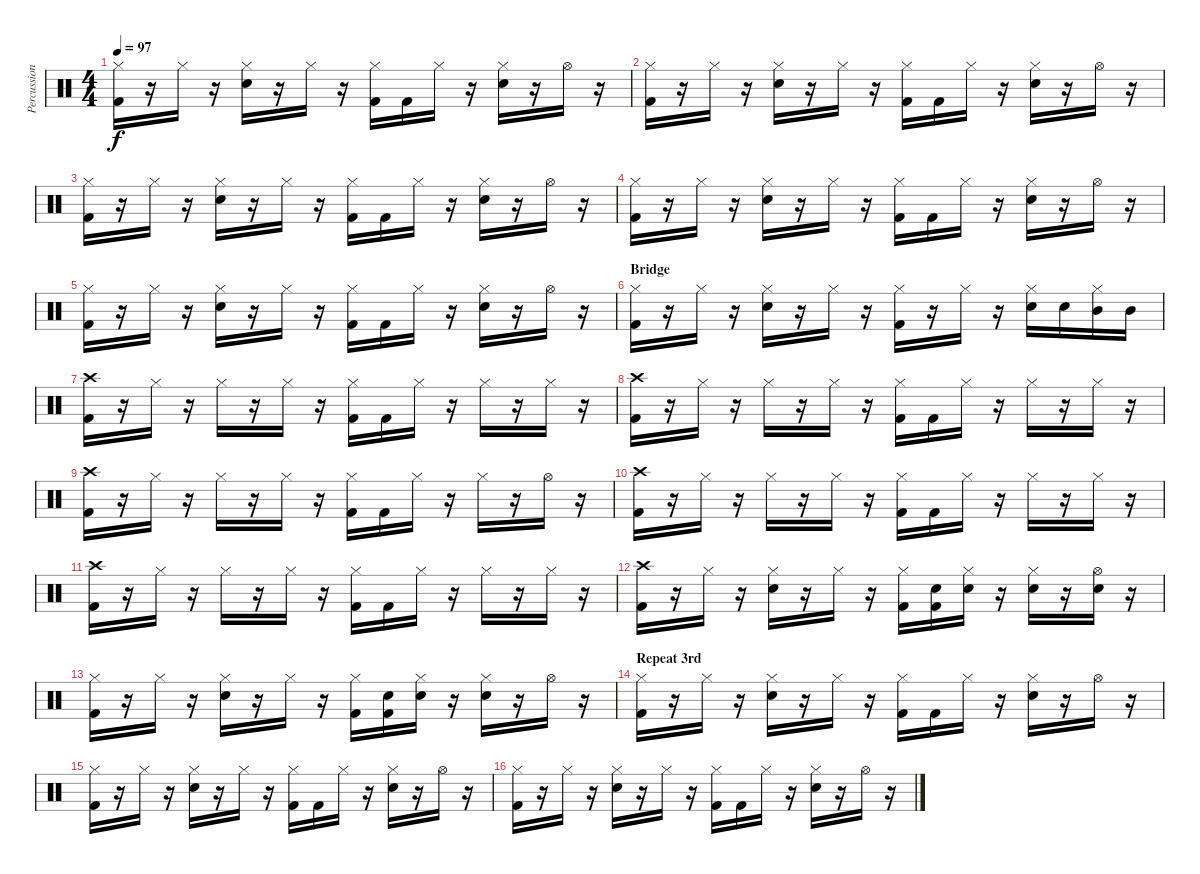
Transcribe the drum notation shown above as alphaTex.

\track ("Percussion" "Percussion") {instrument percussion}
\staff {score}
\articulation defaults
\ts (4 4)
\tempo 97
\clef neutral
\ks c
("Hi-Hat (closed)" "Kick (hit) 2").16{dy f} r.16 "Hi-Hat (closed)".16 r.16 ("Hi-Hat (closed)" "Snare (hit) 2").16 r.16 "Hi-Hat (closed)".16 r.16 ("Hi-Hat (closed)" "Kick (hit) 2").16 "Kick (hit) 2".16 "Hi-Hat (closed)".16 r.16 ("Hi-Hat (closed)" "Snare (hit) 2").16 r.16 "Hi-Hat (open)".16 r.16 |
("Hi-Hat (closed)" "Kick (hit) 2").16 r.16 "Hi-Hat (closed)".16 r.16 ("Hi-Hat (closed)" "Snare (hit) 2").16 r.16 "Hi-Hat (closed)".16 r.16 ("Hi-Hat (closed)" "Kick (hit) 2").16 "Kick (hit) 2".16 "Hi-Hat (closed)".16 r.16 ("Hi-Hat (closed)" "Snare (hit) 2").16 r.16 "Hi-Hat (open)".16 r.16 |
("Hi-Hat (closed)" "Kick (hit) 2").16 r.16 "Hi-Hat (closed)".16 r.16 ("Hi-Hat (closed)" "Snare (hit) 2").16 r.16 "Hi-Hat (closed)".16 r.16 ("Hi-Hat (closed)" "Kick (hit) 2").16 "Kick (hit) 2".16 "Hi-Hat (closed)".16 r.16 ("Hi-Hat (closed)" "Snare (hit) 2").16 r.16 "Hi-Hat (open)".16 r.16 |
("Hi-Hat (closed)" "Kick (hit) 2").16 r.16 "Hi-Hat (closed)".16 r.16 ("Hi-Hat (closed)" "Snare (hit) 2").16 r.16 "Hi-Hat (closed)".16 r.16 ("Hi-Hat (closed)" "Kick (hit) 2").16 "Kick (hit) 2".16 "Hi-Hat (closed)".16 r.16 ("Hi-Hat (closed)" "Snare (hit) 2").16 r.16 "Hi-Hat (open)".16 r.16 |
("Hi-Hat (closed)" "Kick (hit) 2").16 r.16 "Hi-Hat (closed)".16 r.16 ("Hi-Hat (closed)" "Snare (hit) 2").16 r.16 "Hi-Hat (closed)".16 r.16 ("Hi-Hat (closed)" "Kick (hit) 2").16 "Kick (hit) 2".16 "Hi-Hat (closed)".16 r.16 ("Hi-Hat (closed)" "Snare (hit) 2").16 r.16 "Hi-Hat (open)".16 r.16 |
\section ("" "Bridge")
("Hi-Hat (closed)" "Kick (hit) 2").16 r.16 "Hi-Hat (closed)".16 r.16 ("Hi-Hat (closed)" "Snare (hit) 2").16 r.16 "Hi-Hat (closed)".16 r.16 ("Hi-Hat (closed)" "Kick (hit) 2").16 r.16 "Hi-Hat (closed)".16 r.16 ("Hi-Hat (closed)" "Snare (hit) 2").16 "Snare (hit) 2".16 ("Hi-Hat (closed)" "Mid Tom (hit)").16 "Mid Tom (hit)".16 |
("Crash high (hit)" "Kick (hit) 2").16 r.16 "Hi-Hat (closed)".16 r.16 "Hi-Hat (closed)".16 r.16 "Hi-Hat (closed)".16 r.16 ("Hi-Hat (closed)" "Kick (hit) 2").16 "Kick (hit) 2".16 "Hi-Hat (closed)".16 r.16 "Hi-Hat (closed)".16 r.16 "Hi-Hat (closed)".16 r.16 |
("Crash high (hit)" "Kick (hit) 2").16 r.16 "Hi-Hat (closed)".16 r.16 "Hi-Hat (closed)".16 r.16 "Hi-Hat (closed)".16 r.16 ("Hi-Hat (closed)" "Kick (hit) 2").16 "Kick (hit) 2".16 "Hi-Hat (closed)".16 r.16 "Hi-Hat (closed)".16 r.16 "Hi-Hat (closed)".16 r.16 |
("Crash high (hit)" "Kick (hit) 2").16 r.16 "Hi-Hat (closed)".16 r.16 "Hi-Hat (closed)".16 r.16 "Hi-Hat (closed)".16 r.16 ("Hi-Hat (closed)" "Kick (hit) 2").16 "Kick (hit) 2".16 "Hi-Hat (closed)".16 r.16 "Hi-Hat (closed)".16 r.16 "Hi-Hat (open)".16 r.16 |
("Crash high (hit)" "Kick (hit) 2").16 r.16 "Hi-Hat (closed)".16 r.16 "Hi-Hat (closed)".16 r.16 "Hi-Hat (closed)".16 r.16 ("Hi-Hat (closed)" "Kick (hit) 2").16 "Kick (hit) 2".16 "Hi-Hat (closed)".16 r.16 "Hi-Hat (closed)".16 r.16 "Hi-Hat (closed)".16 r.16 |
("Crash high (hit)" "Kick (hit) 2").16 r.16 "Hi-Hat (closed)".16 r.16 "Hi-Hat (closed)".16 r.16 "Hi-Hat (closed)".16 r.16 ("Hi-Hat (closed)" "Kick (hit) 2").16 "Kick (hit) 2".16 "Hi-Hat (closed)".16 r.16 "Hi-Hat (closed)".16 r.16 "Hi-Hat (closed)".16 r.16 |
("Crash high (hit)" "Kick (hit) 2").16 r.16 "Hi-Hat (closed)".16 r.16 ("Hi-Hat (closed)" "Snare (hit) 2").16 r.16 "Hi-Hat (closed)".16 r.16 ("Hi-Hat (closed)" "Kick (hit) 2").16 ("Snare (hit) 2" "Kick (hit) 2").16 ("Hi-Hat (closed)" "Snare (hit) 2").16 r.16 ("Hi-Hat (closed)" "Snare (hit) 2").16 r.16 ("Hi-Hat (open)" "Snare (hit) 2").16 r.16 |
("Hi-Hat (closed)" "Kick (hit) 2").16 r.16 "Hi-Hat (closed)".16 r.16 ("Hi-Hat (closed)" "Snare (hit) 2").16 r.16 "Hi-Hat (closed)".16 r.16 ("Hi-Hat (closed)" "Kick (hit) 2").16 ("Snare (hit) 2" "Kick (hit) 2").16 ("Hi-Hat (closed)" "Snare (hit) 2").16 r.16 ("Hi-Hat (closed)" "Snare (hit) 2").16 r.16 "Hi-Hat (open)".16 r.16 |
\section ("" "Repeat 3rd ")
("Hi-Hat (closed)" "Kick (hit) 2").16 r.16 "Hi-Hat (closed)".16 r.16 ("Hi-Hat (closed)" "Snare (hit) 2").16 r.16 "Hi-Hat (closed)".16 r.16 ("Hi-Hat (closed)" "Kick (hit) 2").16 "Kick (hit) 2".16 "Hi-Hat (closed)".16 r.16 ("Hi-Hat (closed)" "Snare (hit) 2").16 r.16 "Hi-Hat (open)".16 r.16 |
("Hi-Hat (closed)" "Kick (hit) 2").16 r.16 "Hi-Hat (closed)".16 r.16 ("Hi-Hat (closed)" "Snare (hit) 2").16 r.16 "Hi-Hat (closed)".16 r.16 ("Hi-Hat (closed)" "Kick (hit) 2").16 "Kick (hit) 2".16 "Hi-Hat (closed)".16 r.16 ("Hi-Hat (closed)" "Snare (hit) 2").16 r.16 "Hi-Hat (open)".16 r.16 |
("Hi-Hat (closed)" "Kick (hit) 2").16 r.16 "Hi-Hat (closed)".16 r.16 ("Hi-Hat (closed)" "Snare (hit) 2").16 r.16 "Hi-Hat (closed)".16 r.16 ("Hi-Hat (closed)" "Kick (hit) 2").16 "Kick (hit) 2".16 "Hi-Hat (closed)".16 r.16 ("Hi-Hat (closed)" "Snare (hit) 2").16 r.16 "Hi-Hat (open)".16 r.16
